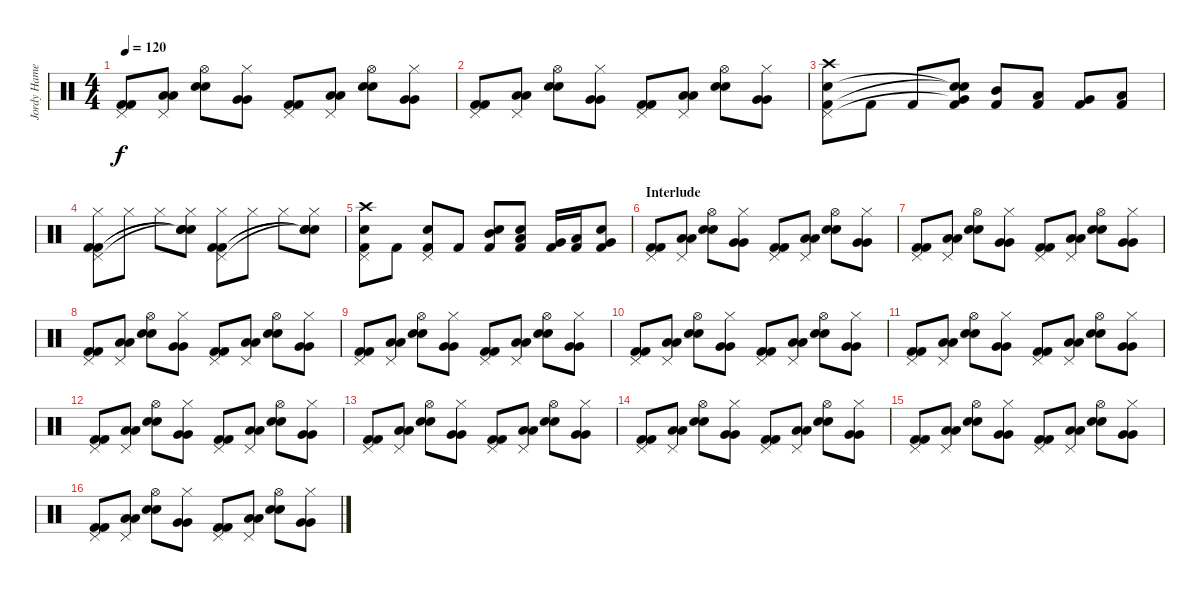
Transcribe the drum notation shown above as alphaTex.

\track ("Jordy Hamer" "Jordy Hame") {instrument percussion}
\staff {score}
\articulation defaults
\ts (4 4)
\tempo 120
\clef neutral
\ks c
("Pedal Hi-Hat (hit)" "Kick (hit) 2" "Kick (hit) 2").8{dy f} ("Pedal Hi-Hat (hit)" "Low Floor Tom (hit)" "Low Floor Tom (hit)").8 ("Hi-Hat (open)" "Electric Snare (hit)" "Electric Snare (hit)").8 ("Hi-Hat (closed)" "Very Low Tom (hit)" "Very Low Tom (hit)").8 ("Pedal Hi-Hat (hit)" "Kick (hit) 2" "Kick (hit) 2").8 ("Pedal Hi-Hat (hit)" "Low Floor Tom (hit)" "Low Floor Tom (hit)").8 ("Hi-Hat (open)" "Electric Snare (hit)" "Electric Snare (hit)").8 ("Hi-Hat (closed)" "Very Low Tom (hit)" "Very Low Tom (hit)").8 |
("Pedal Hi-Hat (hit)" "Kick (hit) 2" "Kick (hit) 2").8 ("Pedal Hi-Hat (hit)" "Low Floor Tom (hit)" "Low Floor Tom (hit)").8 ("Hi-Hat (open)" "Electric Snare (hit)" "Electric Snare (hit)").8 ("Hi-Hat (closed)" "Very Low Tom (hit)" "Very Low Tom (hit)").8 ("Pedal Hi-Hat (hit)" "Kick (hit) 2" "Kick (hit) 2").8 ("Pedal Hi-Hat (hit)" "Low Floor Tom (hit)" "Low Floor Tom (hit)").8 ("Hi-Hat (open)" "Electric Snare (hit)" "Electric Snare (hit)").8 ("Hi-Hat (closed)" "Very Low Tom (hit)" "Very Low Tom (hit)").8 |
("Crash high (hit)" "Pedal Hi-Hat (hit)" "Electric Snare (hit)" "Kick (hit) 2").8 "Kick (hit) 2".8 "Kick (hit) 2".8 ("Kick (hit) 2" "Very Low Tom (hit)"{t} "Snare (hit)"{t} "Snare (hit)"{t}).8 ("Kick (hit) 2" "Mid Tom (hit)").8 ("Kick (hit) 2" "Low Tom (hit)").8 ("Kick (hit) 2" "Very Low Tom (hit)").8 ("Kick (hit) 2" "Low Floor Tom (hit)").8 |
("Hi-Hat (closed)" "Pedal Hi-Hat (hit)" "Kick (hit) 2" "Kick (hit) 2").8 "Hi-Hat (closed)".8 "Hi-Hat (closed)".8 ("Hi-Hat (closed)" "Snare (hit)"{t} "Snare (hit)"{t} "Snare (hit)"{t}).8 ("Hi-Hat (closed)" "Pedal Hi-Hat (hit)" "Kick (hit) 2" "Kick (hit) 2").8 "Hi-Hat (closed)".8 "Hi-Hat (closed)".8 ("Hi-Hat (closed)" "Snare (hit)"{t} "Snare (hit)"{t} "Snare (hit)"{t}).8 |
("Crash high (hit)" "Pedal Hi-Hat (hit)" "Electric Snare (hit)" "Kick (hit) 2").8 "Kick (hit) 2".8 ("Pedal Hi-Hat (hit)" "Electric Snare (hit)" "Kick (hit) 2").8 "Kick (hit) 2".8 ("Kick (hit) 2" "Mid Tom (hit)" "Electric Snare (hit)").8 ("Kick (hit) 2" "Low Tom (hit)" "Electric Snare (hit)").8 ("Kick (hit) 2" "Very Low Tom (hit)").16 ("Kick (hit) 2" "Low Floor Tom (hit)").16 ("Kick (hit) 2" "Very Low Tom (hit)" "Electric Snare (hit)").8 |
\section ("" "Interlude")
("Pedal Hi-Hat (hit)" "Kick (hit) 2" "Kick (hit) 2").8 ("Pedal Hi-Hat (hit)" "Low Floor Tom (hit)" "Low Floor Tom (hit)").8 ("Hi-Hat (open)" "Electric Snare (hit)" "Electric Snare (hit)").8 ("Hi-Hat (closed)" "Very Low Tom (hit)" "Very Low Tom (hit)").8 ("Pedal Hi-Hat (hit)" "Kick (hit) 2" "Kick (hit) 2").8 ("Pedal Hi-Hat (hit)" "Low Floor Tom (hit)" "Low Floor Tom (hit)").8 ("Hi-Hat (open)" "Electric Snare (hit)" "Electric Snare (hit)").8 ("Hi-Hat (closed)" "Very Low Tom (hit)" "Very Low Tom (hit)").8 |
("Pedal Hi-Hat (hit)" "Kick (hit) 2" "Kick (hit) 2").8 ("Pedal Hi-Hat (hit)" "Low Floor Tom (hit)" "Low Floor Tom (hit)").8 ("Hi-Hat (open)" "Electric Snare (hit)" "Electric Snare (hit)").8 ("Hi-Hat (closed)" "Very Low Tom (hit)" "Very Low Tom (hit)").8 ("Pedal Hi-Hat (hit)" "Kick (hit) 2" "Kick (hit) 2").8 ("Pedal Hi-Hat (hit)" "Low Floor Tom (hit)" "Low Floor Tom (hit)").8 ("Hi-Hat (open)" "Electric Snare (hit)" "Electric Snare (hit)").8 ("Hi-Hat (closed)" "Very Low Tom (hit)" "Very Low Tom (hit)").8 |
("Pedal Hi-Hat (hit)" "Kick (hit) 2" "Kick (hit) 2").8 ("Pedal Hi-Hat (hit)" "Low Floor Tom (hit)" "Low Floor Tom (hit)").8 ("Hi-Hat (open)" "Electric Snare (hit)" "Electric Snare (hit)").8 ("Hi-Hat (closed)" "Very Low Tom (hit)" "Very Low Tom (hit)").8 ("Pedal Hi-Hat (hit)" "Kick (hit) 2" "Kick (hit) 2").8 ("Pedal Hi-Hat (hit)" "Low Floor Tom (hit)" "Low Floor Tom (hit)").8 ("Hi-Hat (open)" "Electric Snare (hit)" "Electric Snare (hit)").8 ("Hi-Hat (closed)" "Very Low Tom (hit)" "Very Low Tom (hit)").8 |
("Pedal Hi-Hat (hit)" "Kick (hit) 2" "Kick (hit) 2").8 ("Pedal Hi-Hat (hit)" "Low Floor Tom (hit)" "Low Floor Tom (hit)").8 ("Hi-Hat (open)" "Electric Snare (hit)" "Electric Snare (hit)").8 ("Hi-Hat (closed)" "Very Low Tom (hit)" "Very Low Tom (hit)").8 ("Pedal Hi-Hat (hit)" "Kick (hit) 2" "Kick (hit) 2").8 ("Pedal Hi-Hat (hit)" "Low Floor Tom (hit)" "Low Floor Tom (hit)").8 ("Hi-Hat (open)" "Electric Snare (hit)" "Electric Snare (hit)").8 ("Hi-Hat (closed)" "Very Low Tom (hit)" "Very Low Tom (hit)").8 |
("Pedal Hi-Hat (hit)" "Kick (hit) 2" "Kick (hit) 2").8 ("Pedal Hi-Hat (hit)" "Low Floor Tom (hit)" "Low Floor Tom (hit)").8 ("Hi-Hat (open)" "Electric Snare (hit)" "Electric Snare (hit)").8 ("Hi-Hat (closed)" "Very Low Tom (hit)" "Very Low Tom (hit)").8 ("Pedal Hi-Hat (hit)" "Kick (hit) 2" "Kick (hit) 2").8 ("Pedal Hi-Hat (hit)" "Low Floor Tom (hit)" "Low Floor Tom (hit)").8 ("Hi-Hat (open)" "Electric Snare (hit)" "Electric Snare (hit)").8 ("Hi-Hat (closed)" "Very Low Tom (hit)" "Very Low Tom (hit)").8 |
("Pedal Hi-Hat (hit)" "Kick (hit) 2" "Kick (hit) 2").8 ("Pedal Hi-Hat (hit)" "Low Floor Tom (hit)" "Low Floor Tom (hit)").8 ("Hi-Hat (open)" "Electric Snare (hit)" "Electric Snare (hit)").8 ("Hi-Hat (closed)" "Very Low Tom (hit)" "Very Low Tom (hit)").8 ("Pedal Hi-Hat (hit)" "Kick (hit) 2" "Kick (hit) 2").8 ("Pedal Hi-Hat (hit)" "Low Floor Tom (hit)" "Low Floor Tom (hit)").8 ("Hi-Hat (open)" "Electric Snare (hit)" "Electric Snare (hit)").8 ("Hi-Hat (closed)" "Very Low Tom (hit)" "Very Low Tom (hit)").8 |
("Pedal Hi-Hat (hit)" "Kick (hit) 2" "Kick (hit) 2").8 ("Pedal Hi-Hat (hit)" "Low Floor Tom (hit)" "Low Floor Tom (hit)").8 ("Hi-Hat (open)" "Electric Snare (hit)" "Electric Snare (hit)").8 ("Hi-Hat (closed)" "Very Low Tom (hit)" "Very Low Tom (hit)").8 ("Pedal Hi-Hat (hit)" "Kick (hit) 2" "Kick (hit) 2").8 ("Pedal Hi-Hat (hit)" "Low Floor Tom (hit)" "Low Floor Tom (hit)").8 ("Hi-Hat (open)" "Electric Snare (hit)" "Electric Snare (hit)").8 ("Hi-Hat (closed)" "Very Low Tom (hit)" "Very Low Tom (hit)").8 |
("Pedal Hi-Hat (hit)" "Kick (hit) 2" "Kick (hit) 2").8 ("Pedal Hi-Hat (hit)" "Low Floor Tom (hit)" "Low Floor Tom (hit)").8 ("Hi-Hat (open)" "Electric Snare (hit)" "Electric Snare (hit)").8 ("Hi-Hat (closed)" "Very Low Tom (hit)" "Very Low Tom (hit)").8 ("Pedal Hi-Hat (hit)" "Kick (hit) 2" "Kick (hit) 2").8 ("Pedal Hi-Hat (hit)" "Low Floor Tom (hit)" "Low Floor Tom (hit)").8 ("Hi-Hat (open)" "Electric Snare (hit)" "Electric Snare (hit)").8 ("Hi-Hat (closed)" "Very Low Tom (hit)" "Very Low Tom (hit)").8 |
("Pedal Hi-Hat (hit)" "Kick (hit) 2" "Kick (hit) 2").8 ("Pedal Hi-Hat (hit)" "Low Floor Tom (hit)" "Low Floor Tom (hit)").8 ("Hi-Hat (open)" "Electric Snare (hit)" "Electric Snare (hit)").8 ("Hi-Hat (closed)" "Very Low Tom (hit)" "Very Low Tom (hit)").8 ("Pedal Hi-Hat (hit)" "Kick (hit) 2" "Kick (hit) 2").8 ("Pedal Hi-Hat (hit)" "Low Floor Tom (hit)" "Low Floor Tom (hit)").8 ("Hi-Hat (open)" "Electric Snare (hit)" "Electric Snare (hit)").8 ("Hi-Hat (closed)" "Very Low Tom (hit)" "Very Low Tom (hit)").8 |
("Pedal Hi-Hat (hit)" "Kick (hit) 2" "Kick (hit) 2").8 ("Pedal Hi-Hat (hit)" "Low Floor Tom (hit)" "Low Floor Tom (hit)").8 ("Hi-Hat (open)" "Electric Snare (hit)" "Electric Snare (hit)").8 ("Hi-Hat (closed)" "Very Low Tom (hit)" "Very Low Tom (hit)").8 ("Pedal Hi-Hat (hit)" "Kick (hit) 2" "Kick (hit) 2").8 ("Pedal Hi-Hat (hit)" "Low Floor Tom (hit)" "Low Floor Tom (hit)").8 ("Hi-Hat (open)" "Electric Snare (hit)" "Electric Snare (hit)").8 ("Hi-Hat (closed)" "Very Low Tom (hit)" "Very Low Tom (hit)").8 |
("Pedal Hi-Hat (hit)" "Kick (hit) 2" "Kick (hit) 2").8 ("Pedal Hi-Hat (hit)" "Low Floor Tom (hit)" "Low Floor Tom (hit)").8 ("Hi-Hat (open)" "Electric Snare (hit)" "Electric Snare (hit)").8 ("Hi-Hat (closed)" "Very Low Tom (hit)" "Very Low Tom (hit)").8 ("Pedal Hi-Hat (hit)" "Kick (hit) 2" "Kick (hit) 2").8 ("Pedal Hi-Hat (hit)" "Low Floor Tom (hit)" "Low Floor Tom (hit)").8 ("Hi-Hat (open)" "Electric Snare (hit)" "Electric Snare (hit)").8 ("Hi-Hat (closed)" "Very Low Tom (hit)" "Very Low Tom (hit)").8
